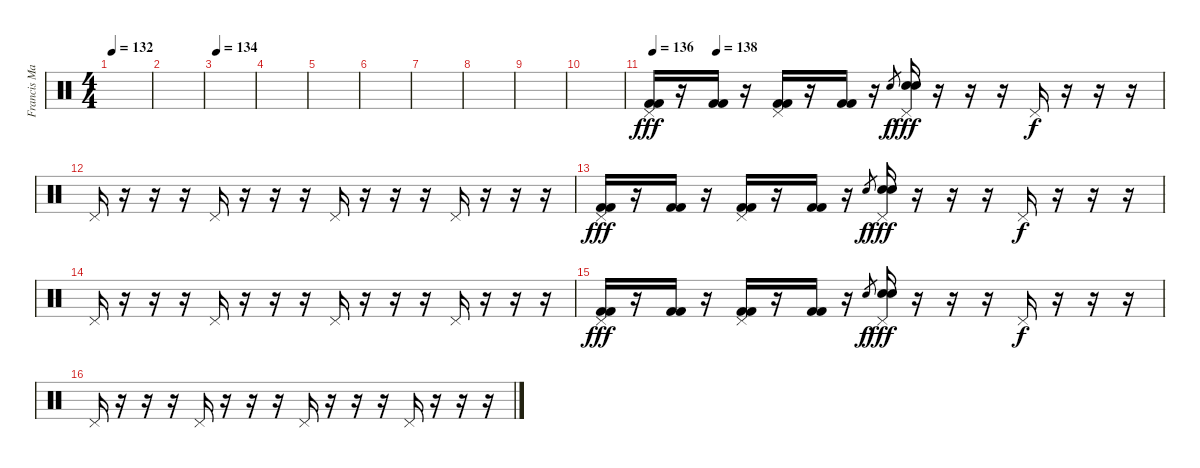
\track ("Francis Mark" "Francis Ma") {instrument percussion}
\staff {score}
\articulation defaults
\ts (4 4)
\tempo 132
\clef neutral
\ks c
|
|
\tempo 134
|
|
|
|
|
|
|
|
\tempo 136
\tempo (138 0.125)
("Pedal Hi-Hat (hit)" "Kick (hit) 2" "Kick (hit) 2").16{dy fff} r.16 ("Kick (hit) 2" "Kick (hit) 2").16 r.16 ("Pedal Hi-Hat (hit)" "Kick (hit) 2" "Kick (hit) 2").16 r.16 ("Kick (hit) 2" "Kick (hit) 2").16 r.16 "Electric Snare (hit)".8{gr dy f} ("Pedal Hi-Hat (hit)" "Electric Snare (hit)" "Electric Snare (hit)").16{dy fff} r.16 r.16 r.16 "Pedal Hi-Hat (hit)".16{dy f} r.16 r.16 r.16 |
"Pedal Hi-Hat (hit)".16 r.16 r.16 r.16 "Pedal Hi-Hat (hit)".16 r.16 r.16 r.16 "Pedal Hi-Hat (hit)".16 r.16 r.16 r.16 "Pedal Hi-Hat (hit)".16 r.16 r.16 r.16 |
("Pedal Hi-Hat (hit)" "Kick (hit) 2" "Kick (hit) 2").16{dy fff} r.16 ("Kick (hit) 2" "Kick (hit) 2").16 r.16 ("Pedal Hi-Hat (hit)" "Kick (hit) 2" "Kick (hit) 2").16 r.16 ("Kick (hit) 2" "Kick (hit) 2").16 r.16 "Electric Snare (hit)".8{gr dy f} ("Pedal Hi-Hat (hit)" "Electric Snare (hit)" "Electric Snare (hit)").16{dy fff} r.16 r.16 r.16 "Pedal Hi-Hat (hit)".16{dy f} r.16 r.16 r.16 |
"Pedal Hi-Hat (hit)".16 r.16 r.16 r.16 "Pedal Hi-Hat (hit)".16 r.16 r.16 r.16 "Pedal Hi-Hat (hit)".16 r.16 r.16 r.16 "Pedal Hi-Hat (hit)".16 r.16 r.16 r.16 |
("Pedal Hi-Hat (hit)" "Kick (hit) 2" "Kick (hit) 2").16{dy fff} r.16 ("Kick (hit) 2" "Kick (hit) 2").16 r.16 ("Pedal Hi-Hat (hit)" "Kick (hit) 2" "Kick (hit) 2").16 r.16 ("Kick (hit) 2" "Kick (hit) 2").16 r.16 "Electric Snare (hit)".8{gr dy f} ("Pedal Hi-Hat (hit)" "Electric Snare (hit)" "Electric Snare (hit)").16{dy fff} r.16 r.16 r.16 "Pedal Hi-Hat (hit)".16{dy f} r.16 r.16 r.16 |
"Pedal Hi-Hat (hit)".16 r.16 r.16 r.16 "Pedal Hi-Hat (hit)".16 r.16 r.16 r.16 "Pedal Hi-Hat (hit)".16 r.16 r.16 r.16 "Pedal Hi-Hat (hit)".16 r.16 r.16 r.16
